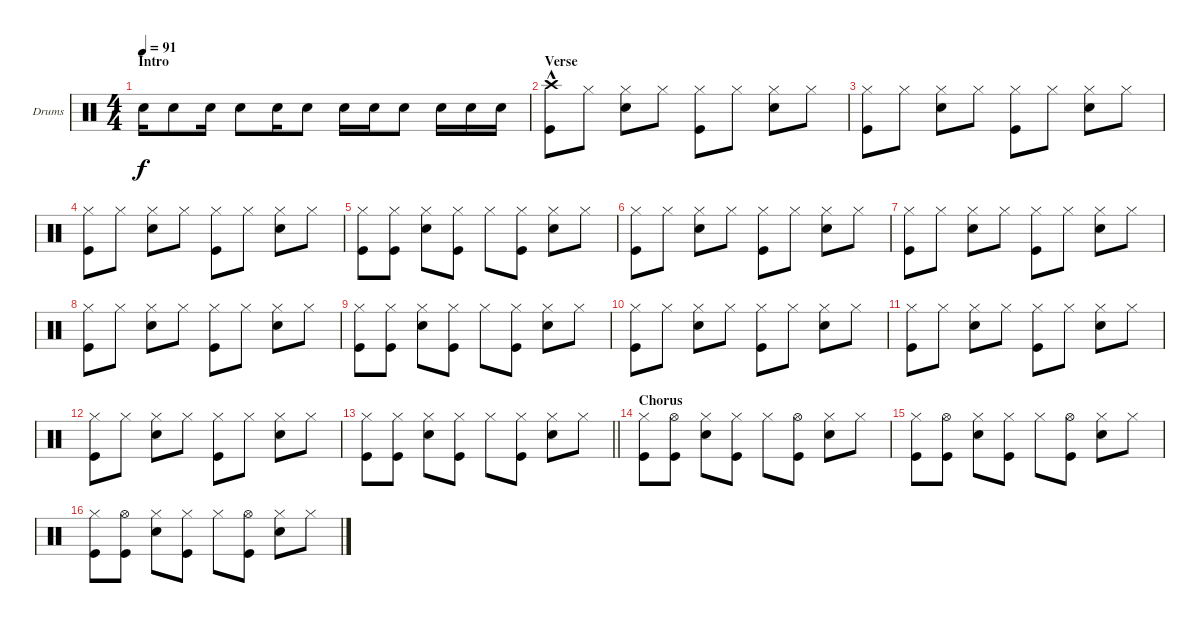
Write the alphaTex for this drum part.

\bracketExtendMode groupsimilarinstruments
\firstSystemTrackNameOrientation horizontal
\otherSystemsTrackNameOrientation horizontal
\track ("Fabrizio" "Drums") {instrument percussion}
\staff {score}
\articulation defaults
\ts (4 4)
\section ("" "Intro")
\tempo 91
\clef neutral
\ks c "Snare (hit) 2".16{dy f} "Snare (hit) 2".8 "Snare (hit) 2".16 "Snare (hit) 2".8 "Snare (hit) 2".16 "Snare (hit) 2".8 "Snare (hit) 2".16 "Snare (hit) 2".16 "Snare (hit) 2".8 "Snare (hit) 2".16 "Snare (hit) 2".16 "Snare (hit) 2".16
|
\section ("" "Verse")
("Crash high (hit)"{hac} "Kick (hit)").8 "Hi-Hat (closed)".8 ("Hi-Hat (closed)" "Snare (hit) 2").8 "Hi-Hat (closed)".8 ("Hi-Hat (closed)" "Kick (hit)").8 "Hi-Hat (closed)".8 ("Hi-Hat (closed)" "Snare (hit) 2").8 "Hi-Hat (closed)".8 |
("Hi-Hat (closed)" "Kick (hit)").8 "Hi-Hat (closed)".8 ("Hi-Hat (closed)" "Snare (hit) 2").8 "Hi-Hat (closed)".8 ("Hi-Hat (closed)" "Kick (hit)").8 "Hi-Hat (closed)".8 ("Hi-Hat (closed)" "Snare (hit) 2").8 "Hi-Hat (closed)".8 |
("Hi-Hat (closed)" "Kick (hit)").8 "Hi-Hat (closed)".8 ("Hi-Hat (closed)" "Snare (hit) 2").8 "Hi-Hat (closed)".8 ("Hi-Hat (closed)" "Kick (hit)").8 "Hi-Hat (closed)".8 ("Hi-Hat (closed)" "Snare (hit) 2").8 "Hi-Hat (closed)".8 |
("Hi-Hat (closed)" "Kick (hit)").8 ("Hi-Hat (closed)" "Kick (hit)").8 ("Hi-Hat (closed)" "Snare (hit) 2").8 ("Hi-Hat (closed)" "Kick (hit)").8 "Hi-Hat (closed)".8 ("Hi-Hat (closed)" "Kick (hit)").8 ("Hi-Hat (closed)" "Snare (hit) 2").8 "Hi-Hat (closed)".8 |
("Hi-Hat (closed)" "Kick (hit)").8 "Hi-Hat (closed)".8 ("Hi-Hat (closed)" "Snare (hit) 2").8 "Hi-Hat (closed)".8 ("Hi-Hat (closed)" "Kick (hit)").8 "Hi-Hat (closed)".8 ("Hi-Hat (closed)" "Snare (hit) 2").8 "Hi-Hat (closed)".8 |
("Hi-Hat (closed)" "Kick (hit)").8 "Hi-Hat (closed)".8 ("Hi-Hat (closed)" "Snare (hit) 2").8 "Hi-Hat (closed)".8 ("Hi-Hat (closed)" "Kick (hit)").8 "Hi-Hat (closed)".8 ("Hi-Hat (closed)" "Snare (hit) 2").8 "Hi-Hat (closed)".8 |
("Hi-Hat (closed)" "Kick (hit)").8 "Hi-Hat (closed)".8 ("Hi-Hat (closed)" "Snare (hit) 2").8 "Hi-Hat (closed)".8 ("Hi-Hat (closed)" "Kick (hit)").8 "Hi-Hat (closed)".8 ("Hi-Hat (closed)" "Snare (hit) 2").8 "Hi-Hat (closed)".8 |
("Hi-Hat (closed)" "Kick (hit)").8 ("Hi-Hat (closed)" "Kick (hit)").8 ("Hi-Hat (closed)" "Snare (hit) 2").8 ("Hi-Hat (closed)" "Kick (hit)").8 "Hi-Hat (closed)".8 ("Hi-Hat (closed)" "Kick (hit)").8 ("Hi-Hat (closed)" "Snare (hit) 2").8 "Hi-Hat (closed)".8 |
("Hi-Hat (closed)" "Kick (hit)").8 "Hi-Hat (closed)".8 ("Hi-Hat (closed)" "Snare (hit) 2").8 "Hi-Hat (closed)".8 ("Hi-Hat (closed)" "Kick (hit)").8 "Hi-Hat (closed)".8 ("Hi-Hat (closed)" "Snare (hit) 2").8 "Hi-Hat (closed)".8 |
("Hi-Hat (closed)" "Kick (hit)").8 "Hi-Hat (closed)".8 ("Hi-Hat (closed)" "Snare (hit) 2").8 "Hi-Hat (closed)".8 ("Hi-Hat (closed)" "Kick (hit)").8 "Hi-Hat (closed)".8 ("Hi-Hat (closed)" "Snare (hit) 2").8 "Hi-Hat (closed)".8 |
("Hi-Hat (closed)" "Kick (hit)").8 "Hi-Hat (closed)".8 ("Hi-Hat (closed)" "Snare (hit) 2").8 "Hi-Hat (closed)".8 ("Hi-Hat (closed)" "Kick (hit)").8 "Hi-Hat (closed)".8 ("Hi-Hat (closed)" "Snare (hit) 2").8 "Hi-Hat (closed)".8 |
\barLineRight lightlight
("Hi-Hat (closed)" "Kick (hit)").8 ("Hi-Hat (closed)" "Kick (hit)").8 ("Hi-Hat (closed)" "Snare (hit) 2").8 ("Hi-Hat (closed)" "Kick (hit)").8 "Hi-Hat (closed)".8 ("Hi-Hat (closed)" "Kick (hit)").8 ("Hi-Hat (closed)" "Snare (hit) 2").8 "Hi-Hat (closed)".8 |
\section ("" "Chorus")
("Hi-Hat (closed)" "Kick (hit)").8 ("Hi-Hat (open)" "Kick (hit)").8 ("Snare (hit) 2" "Hi-Hat (closed)").8 ("Hi-Hat (closed)" "Kick (hit)").8 "Hi-Hat (closed)".8 ("Hi-Hat (open)" "Kick (hit)").8 ("Snare (hit) 2" "Hi-Hat (closed)").8 "Hi-Hat (closed)".8 |
("Hi-Hat (closed)" "Kick (hit)").8 ("Hi-Hat (open)" "Kick (hit)").8 ("Snare (hit) 2" "Hi-Hat (closed)").8 ("Hi-Hat (closed)" "Kick (hit)").8 "Hi-Hat (closed)".8 ("Hi-Hat (open)" "Kick (hit)").8 ("Snare (hit) 2" "Hi-Hat (closed)").8 "Hi-Hat (closed)".8 |
("Hi-Hat (closed)" "Kick (hit)").8 ("Hi-Hat (open)" "Kick (hit)").8 ("Snare (hit) 2" "Hi-Hat (closed)").8 ("Hi-Hat (closed)" "Kick (hit)").8 "Hi-Hat (closed)".8 ("Hi-Hat (open)" "Kick (hit)").8 ("Snare (hit) 2" "Hi-Hat (closed)").8 "Hi-Hat (closed)".8
